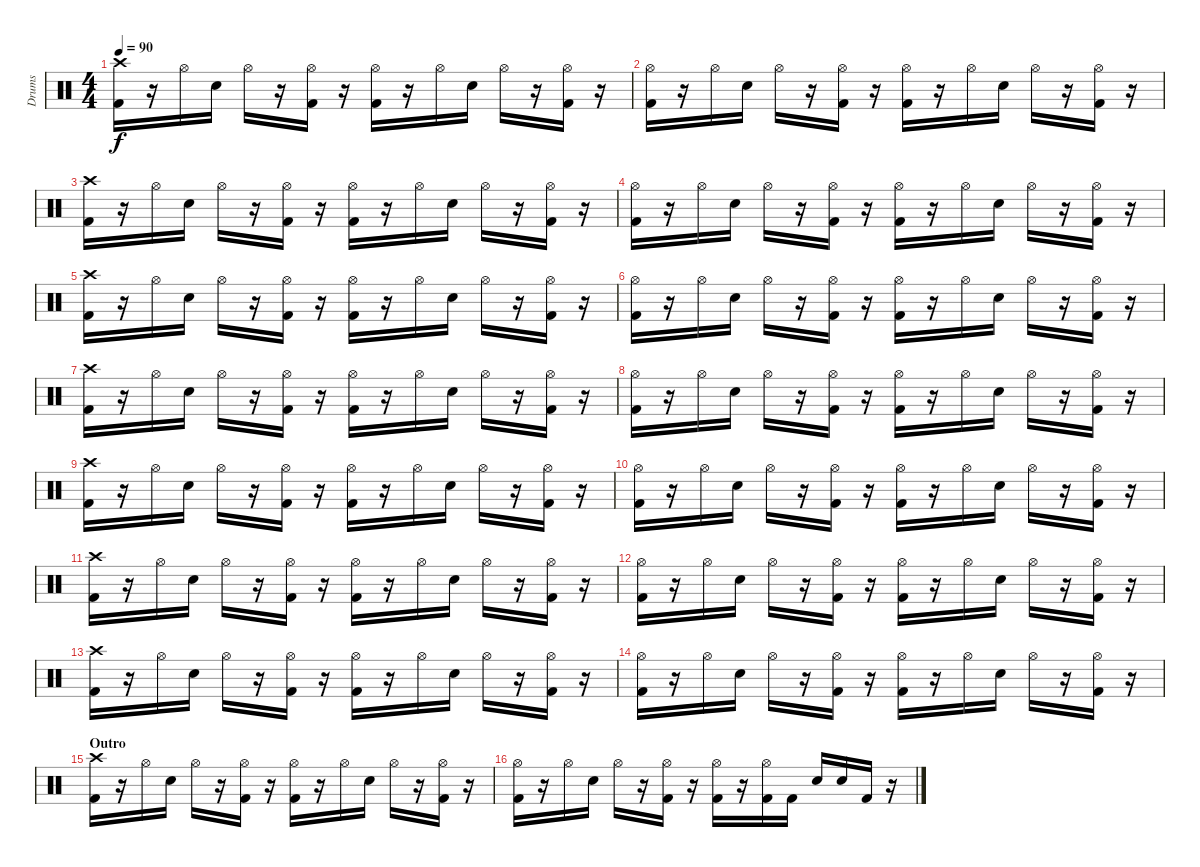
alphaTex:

\track ("Drums" "Drums") {instrument percussion}
\staff {score}
\articulation defaults
\ts (4 4)
\tempo 90
\clef neutral
\ks c
("Kick (hit) 2" "Crash high (hit)").16{dy f} r.16 "Hi-Hat (open)".16 "Snare (hit) 2".16 "Hi-Hat (open)".16 r.16 ("Kick (hit) 2" "Hi-Hat (open)").16 r.16 ("Kick (hit) 2" "Hi-Hat (open)").16 r.16 "Hi-Hat (open)".16 "Snare (hit) 2".16 "Hi-Hat (open)".16 r.16 ("Kick (hit) 2" "Hi-Hat (open)").16 r.16 |
("Kick (hit) 2" "Hi-Hat (open)").16 r.16 "Hi-Hat (open)".16 "Snare (hit) 2".16 "Hi-Hat (open)".16 r.16 ("Kick (hit) 2" "Hi-Hat (open)").16 r.16 ("Kick (hit) 2" "Hi-Hat (open)").16 r.16 "Hi-Hat (open)".16 "Snare (hit) 2".16 "Hi-Hat (open)".16 r.16 ("Kick (hit) 2" "Hi-Hat (open)").16 r.16 |
("Kick (hit) 2" "Crash high (hit)").16 r.16 "Hi-Hat (open)".16 "Snare (hit) 2".16 "Hi-Hat (open)".16 r.16 ("Kick (hit) 2" "Hi-Hat (open)").16 r.16 ("Kick (hit) 2" "Hi-Hat (open)").16 r.16 "Hi-Hat (open)".16 "Snare (hit) 2".16 "Hi-Hat (open)".16 r.16 ("Kick (hit) 2" "Hi-Hat (open)").16 r.16 |
("Kick (hit) 2" "Hi-Hat (open)").16 r.16 "Hi-Hat (open)".16 "Snare (hit) 2".16 "Hi-Hat (open)".16 r.16 ("Kick (hit) 2" "Hi-Hat (open)").16 r.16 ("Kick (hit) 2" "Hi-Hat (open)").16 r.16 "Hi-Hat (open)".16 "Snare (hit) 2".16 "Hi-Hat (open)".16 r.16 ("Kick (hit) 2" "Hi-Hat (open)").16 r.16 |
("Kick (hit) 2" "Crash high (hit)").16 r.16 "Hi-Hat (open)".16 "Snare (hit) 2".16 "Hi-Hat (open)".16 r.16 ("Kick (hit) 2" "Hi-Hat (open)").16 r.16 ("Kick (hit) 2" "Hi-Hat (open)").16 r.16 "Hi-Hat (open)".16 "Snare (hit) 2".16 "Hi-Hat (open)".16 r.16 ("Kick (hit) 2" "Hi-Hat (open)").16 r.16 |
("Kick (hit) 2" "Hi-Hat (open)").16 r.16 "Hi-Hat (open)".16 "Snare (hit) 2".16 "Hi-Hat (open)".16 r.16 ("Kick (hit) 2" "Hi-Hat (open)").16 r.16 ("Kick (hit) 2" "Hi-Hat (open)").16 r.16 "Hi-Hat (open)".16 "Snare (hit) 2".16 "Hi-Hat (open)".16 r.16 ("Kick (hit) 2" "Hi-Hat (open)").16 r.16 |
("Kick (hit) 2" "Crash high (hit)").16 r.16 "Hi-Hat (open)".16 "Snare (hit) 2".16 "Hi-Hat (open)".16 r.16 ("Kick (hit) 2" "Hi-Hat (open)").16 r.16 ("Kick (hit) 2" "Hi-Hat (open)").16 r.16 "Hi-Hat (open)".16 "Snare (hit) 2".16 "Hi-Hat (open)".16 r.16 ("Kick (hit) 2" "Hi-Hat (open)").16 r.16 |
("Kick (hit) 2" "Hi-Hat (open)").16 r.16 "Hi-Hat (open)".16 "Snare (hit) 2".16 "Hi-Hat (open)".16 r.16 ("Kick (hit) 2" "Hi-Hat (open)").16 r.16 ("Kick (hit) 2" "Hi-Hat (open)").16 r.16 "Hi-Hat (open)".16 "Snare (hit) 2".16 "Hi-Hat (open)".16 r.16 ("Kick (hit) 2" "Hi-Hat (open)").16 r.16 |
("Kick (hit) 2" "Crash high (hit)").16 r.16 "Hi-Hat (open)".16 "Snare (hit) 2".16 "Hi-Hat (open)".16 r.16 ("Kick (hit) 2" "Hi-Hat (open)").16 r.16 ("Kick (hit) 2" "Hi-Hat (open)").16 r.16 "Hi-Hat (open)".16 "Snare (hit) 2".16 "Hi-Hat (open)".16 r.16 ("Kick (hit) 2" "Hi-Hat (open)").16 r.16 |
("Kick (hit) 2" "Hi-Hat (open)").16 r.16 "Hi-Hat (open)".16 "Snare (hit) 2".16 "Hi-Hat (open)".16 r.16 ("Kick (hit) 2" "Hi-Hat (open)").16 r.16 ("Kick (hit) 2" "Hi-Hat (open)").16 r.16 "Hi-Hat (open)".16 "Snare (hit) 2".16 "Hi-Hat (open)".16 r.16 ("Kick (hit) 2" "Hi-Hat (open)").16 r.16 |
("Kick (hit) 2" "Crash high (hit)").16 r.16 "Hi-Hat (open)".16 "Snare (hit) 2".16 "Hi-Hat (open)".16 r.16 ("Kick (hit) 2" "Hi-Hat (open)").16 r.16 ("Kick (hit) 2" "Hi-Hat (open)").16 r.16 "Hi-Hat (open)".16 "Snare (hit) 2".16 "Hi-Hat (open)".16 r.16 ("Kick (hit) 2" "Hi-Hat (open)").16 r.16 |
("Kick (hit) 2" "Hi-Hat (open)").16 r.16 "Hi-Hat (open)".16 "Snare (hit) 2".16 "Hi-Hat (open)".16 r.16 ("Kick (hit) 2" "Hi-Hat (open)").16 r.16 ("Kick (hit) 2" "Hi-Hat (open)").16 r.16 "Hi-Hat (open)".16 "Snare (hit) 2".16 "Hi-Hat (open)".16 r.16 ("Kick (hit) 2" "Hi-Hat (open)").16 r.16 |
("Kick (hit) 2" "Crash high (hit)").16 r.16 "Hi-Hat (open)".16 "Snare (hit) 2".16 "Hi-Hat (open)".16 r.16 ("Kick (hit) 2" "Hi-Hat (open)").16 r.16 ("Kick (hit) 2" "Hi-Hat (open)").16 r.16 "Hi-Hat (open)".16 "Snare (hit) 2".16 "Hi-Hat (open)".16 r.16 ("Kick (hit) 2" "Hi-Hat (open)").16 r.16 |
("Kick (hit) 2" "Hi-Hat (open)").16 r.16 "Hi-Hat (open)".16 "Snare (hit) 2".16 "Hi-Hat (open)".16 r.16 ("Kick (hit) 2" "Hi-Hat (open)").16 r.16 ("Kick (hit) 2" "Hi-Hat (open)").16 r.16 "Hi-Hat (open)".16 "Snare (hit) 2".16 "Hi-Hat (open)".16 r.16 ("Kick (hit) 2" "Hi-Hat (open)").16 r.16 |
\section ("" "Outro")
("Kick (hit) 2" "Crash high (hit)").16 r.16 "Hi-Hat (open)".16 "Snare (hit) 2".16 "Hi-Hat (open)".16 r.16 ("Kick (hit) 2" "Hi-Hat (open)").16 r.16 ("Kick (hit) 2" "Hi-Hat (open)").16 r.16 "Hi-Hat (open)".16 "Snare (hit) 2".16 "Hi-Hat (open)".16 r.16 ("Kick (hit) 2" "Hi-Hat (open)").16 r.16 |
("Kick (hit) 2" "Hi-Hat (open)").16 r.16 "Hi-Hat (open)".16 "Snare (hit) 2".16 "Hi-Hat (open)".16 r.16 ("Kick (hit) 2" "Hi-Hat (open)").16 r.16 ("Kick (hit) 2" "Hi-Hat (open)").16 r.16 ("Kick (hit) 2" "Hi-Hat (open)").16 "Kick (hit) 2".16 "Snare (hit) 2".16 "Snare (hit) 2".16 "Kick (hit) 2".16 r.16
